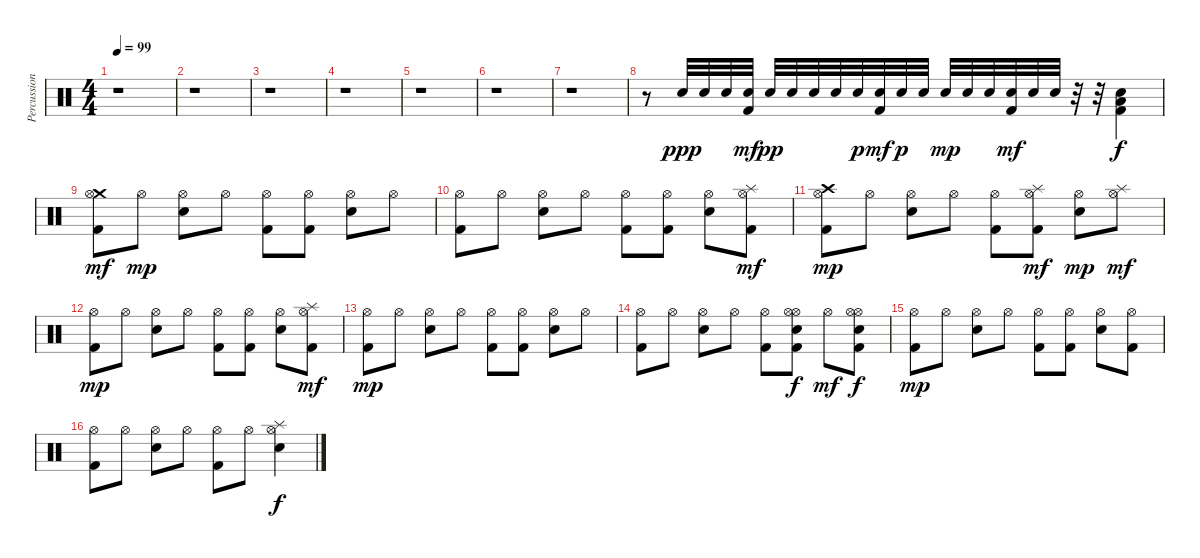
\track ("Percussion" "Percussion") {instrument percussion}
\staff {score}
\articulation defaults
\ts (4 4)
\tempo 99
\clef neutral
\ks c
r.1{dy ppp} |
r.1 |
r.1 |
r.1 |
r.1 |
r.1 |
r.1 |
r.8 "Snare (hit) 2".32 "Snare (hit) 2".32 "Snare (hit) 2".32 ("Snare (hit) 2" "Kick (hit) 2").32{dy mf} "Snare (hit) 2".32{dy pp} "Snare (hit) 2".32 "Snare (hit) 2".32 "Snare (hit) 2".32 "Snare (hit) 2".32{dy p} ("Snare (hit) 2" "Kick (hit) 2").32{dy mf} "Snare (hit) 2".32{dy p} "Snare (hit) 2".32 "Snare (hit) 2".32{dy mp} "Snare (hit) 2".32 "Snare (hit) 2".32 ("Snare (hit) 2" "Kick (hit) 2").32{dy mf} "Snare (hit) 2".32 "Snare (hit) 2".32 r.32 r.32 ("Snare (hit) 2" "Low Floor Tom (hit)" "Kick (hit) 2").4{dy f} |
("Crash medium (hit)" "Kick (hit) 2" "Hi-Hat (open)").8{dy mf} "Hi-Hat (open)".8{dy mp} ("Snare (hit) 2" "Hi-Hat (open)").8 "Hi-Hat (open)".8 ("Kick (hit) 2" "Hi-Hat (open)").8 ("Kick (hit) 2" "Hi-Hat (open)").8 ("Snare (hit) 2" "Hi-Hat (open)").8 "Hi-Hat (open)".8 |
("Kick (hit) 2" "Hi-Hat (open)").8 "Hi-Hat (open)".8 ("Snare (hit) 2" "Hi-Hat (open)").8 "Hi-Hat (open)".8 ("Kick (hit) 2" "Hi-Hat (open)").8 ("Kick (hit) 2" "Hi-Hat (open)").8 ("Snare (hit) 2" "Hi-Hat (open)").8 ("Splash (hit)" "Kick (hit) 2" "Hi-Hat (open)").8{dy mf} |
("Crash high (hit)" "Kick (hit) 2" "Hi-Hat (open)").8{dy mp} "Hi-Hat (open)".8 ("Snare (hit) 2" "Hi-Hat (open)").8 "Hi-Hat (open)".8 ("Kick (hit) 2" "Hi-Hat (open)").8 ("Splash (hit)" "Kick (hit) 2" "Hi-Hat (open)").8{dy mf} ("Snare (hit) 2" "Hi-Hat (open)").8{dy mp} ("Splash (hit)" "Hi-Hat (open)").8{dy mf} |
("Kick (hit) 2" "Hi-Hat (open)").8{dy mp} "Hi-Hat (open)".8 ("Snare (hit) 2" "Hi-Hat (open)").8 "Hi-Hat (open)".8 ("Kick (hit) 2" "Hi-Hat (open)").8 ("Kick (hit) 2" "Hi-Hat (open)").8 ("Snare (hit) 2" "Hi-Hat (open)").8 ("Splash (hit)" "Kick (hit) 2" "Hi-Hat (open)").8{dy mf} |
("Kick (hit) 2" "Hi-Hat (open)").8{dy mp} "Hi-Hat (open)".8 ("Snare (hit) 2" "Hi-Hat (open)").8 "Hi-Hat (open)".8 ("Kick (hit) 2" "Hi-Hat (open)").8 ("Kick (hit) 2" "Hi-Hat (open)").8 ("Snare (hit) 2" "Hi-Hat (open)").8 "Hi-Hat (open)".8 |
("Kick (hit) 2" "Hi-Hat (open)").8 "Hi-Hat (open)".8 ("Snare (hit) 2" "Hi-Hat (open)").8 "Hi-Hat (open)".8 ("Kick (hit) 2" "Hi-Hat (open)").8 ("Hi-Hat (open)" "Snare (hit) 2" "Kick (hit) 2" "Hi-Hat (open)").8{dy f} "Hi-Hat (open)".8{dy mf} ("Hi-Hat (open)" "Snare (hit) 2" "Kick (hit) 2" "Hi-Hat (open)").8{dy f} |
("Kick (hit) 2" "Hi-Hat (open)").8{dy mp} "Hi-Hat (open)".8 ("Snare (hit) 2" "Hi-Hat (open)").8 "Hi-Hat (open)".8 ("Kick (hit) 2" "Hi-Hat (open)").8 ("Kick (hit) 2" "Hi-Hat (open)").8 ("Snare (hit) 2" "Hi-Hat (open)").8 ("Kick (hit) 2" "Hi-Hat (open)").8 |
("Kick (hit) 2" "Hi-Hat (open)").8 "Hi-Hat (open)".8 ("Snare (hit) 2" "Hi-Hat (open)").8 "Hi-Hat (open)".8 ("Kick (hit) 2" "Hi-Hat (open)").8 "Hi-Hat (open)".8 ("Splash (hit)" "Snare (hit) 2" "Hi-Hat (open)").4{dy f}
